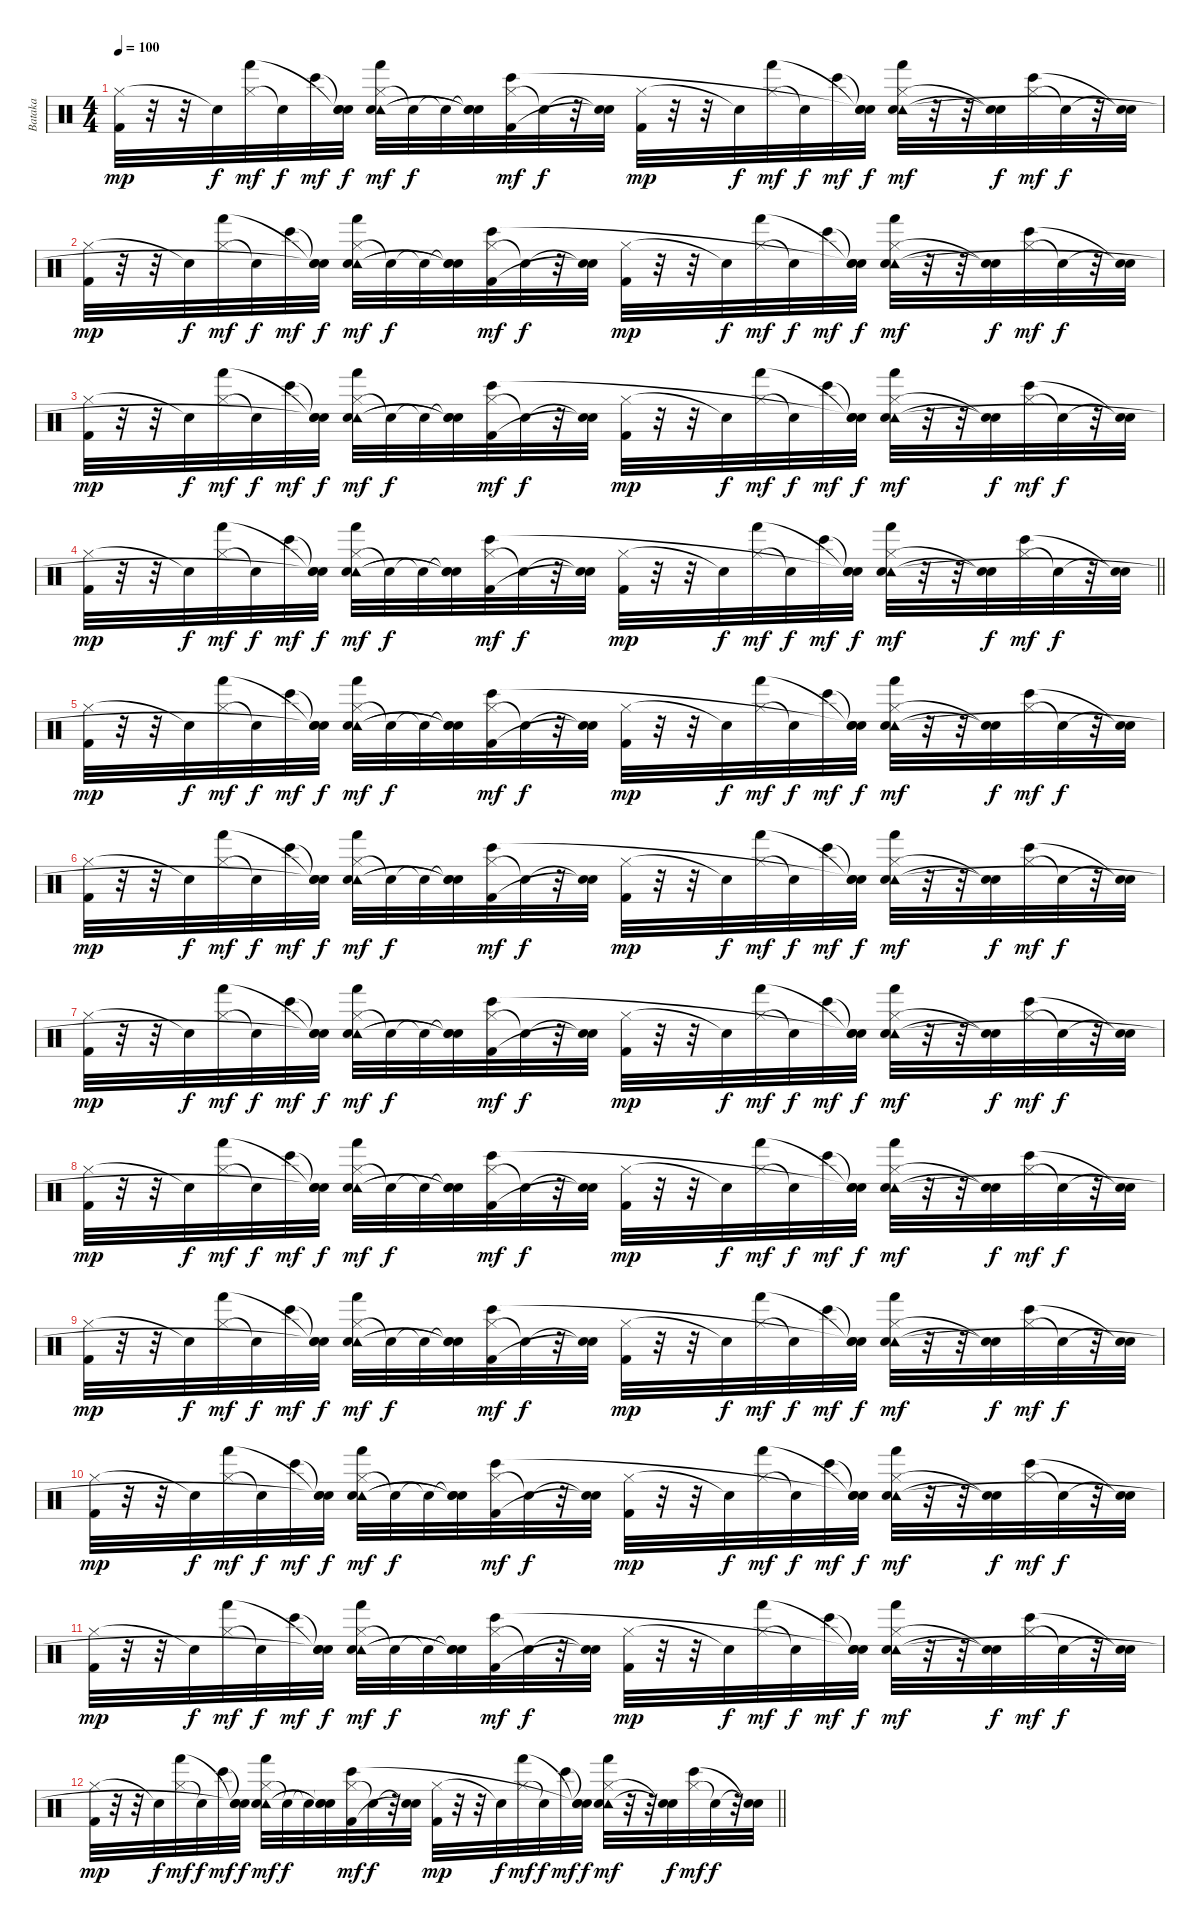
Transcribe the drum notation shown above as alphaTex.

\track ("Bataka" "Bataka") {instrument percussion}
\staff {score}
\articulation defaults
\ts (4 4)
\tempo 100
\clef neutral
\ks c
("Hi-Hat (closed)" "Kick (hit) 2").32{dy mp} r.32 r.32 "Snare (hit)"{t}.32{dy f} ("Hi-Hat (closed)" "Hand (hit)").32{dy mf} "Snare (hit)"{t}.32{dy f} "Bongo High (hit)".32{dy mf} ("Snare (hit)"{t} "Snare (hit)"{t} "Snare (hit)"{t}).32{dy f} ("Hi-Hat (closed)" "Tambourine (hit)" "Electric Snare (hit)" "Hand (hit)").32{dy mf} "Snare (hit)"{t}.32{dy f} "Snare (hit)"{t}.32 ("Snare (hit)"{t} "Snare (hit)"{t} "Snare (hit)"{t}).32 ("Hi-Hat (closed)" "Kick (hit) 2" "Bongo High (hit)").32{dy mf} "Snare (hit)"{t}.32{dy f} r.32 ("Snare (hit)"{t} "Snare (hit)"{t}).32 ("Hi-Hat (closed)" "Kick (hit) 2").32{dy mp} r.32 r.32 "Snare (hit)"{t}.32{dy f} ("Hi-Hat (closed)" "Hand (hit)").32{dy mf} "Snare (hit)"{t}.32{dy f} "Bongo High (hit)".32{dy mf} ("Snare (hit)"{t} "Snare (hit)"{t} "Snare (hit)"{t}).32{dy f} ("Hi-Hat (closed)" "Tambourine (hit)" "Electric Snare (hit)" "Hand (hit)").32{dy mf} r.32 r.32 ("Snare (hit)"{t} "Snare (hit)"{t}).32{dy f} ("Hi-Hat (closed)" "Bongo High (hit)").32{dy mf} "Snare (hit)"{t}.32{dy f} r.32 ("Snare (hit)"{t} "Snare (hit)"{t}).32 |
("Hi-Hat (closed)" "Kick (hit) 2").32{dy mp} r.32 r.32 "Snare (hit)"{t}.32{dy f} ("Hi-Hat (closed)" "Hand (hit)").32{dy mf} "Snare (hit)"{t}.32{dy f} "Bongo High (hit)".32{dy mf} ("Snare (hit)"{t} "Snare (hit)"{t} "Snare (hit)"{t}).32{dy f} ("Hi-Hat (closed)" "Tambourine (hit)" "Electric Snare (hit)" "Hand (hit)").32{dy mf} "Snare (hit)"{t}.32{dy f} "Snare (hit)"{t}.32 ("Snare (hit)"{t} "Snare (hit)"{t} "Snare (hit)"{t}).32 ("Hi-Hat (closed)" "Kick (hit) 2" "Bongo High (hit)").32{dy mf} "Snare (hit)"{t}.32{dy f} r.32 ("Snare (hit)"{t} "Snare (hit)"{t}).32 ("Hi-Hat (closed)" "Kick (hit) 2").32{dy mp} r.32 r.32 "Snare (hit)"{t}.32{dy f} ("Hi-Hat (closed)" "Hand (hit)").32{dy mf} "Snare (hit)"{t}.32{dy f} "Bongo High (hit)".32{dy mf} ("Snare (hit)"{t} "Snare (hit)"{t} "Snare (hit)"{t}).32{dy f} ("Hi-Hat (closed)" "Tambourine (hit)" "Electric Snare (hit)" "Hand (hit)").32{dy mf} r.32 r.32 ("Snare (hit)"{t} "Snare (hit)"{t}).32{dy f} ("Hi-Hat (closed)" "Bongo High (hit)").32{dy mf} "Snare (hit)"{t}.32{dy f} r.32 ("Snare (hit)"{t} "Snare (hit)"{t}).32 |
("Hi-Hat (closed)" "Kick (hit) 2").32{dy mp} r.32 r.32 "Snare (hit)"{t}.32{dy f} ("Hi-Hat (closed)" "Hand (hit)").32{dy mf} "Snare (hit)"{t}.32{dy f} "Bongo High (hit)".32{dy mf} ("Snare (hit)"{t} "Snare (hit)"{t} "Snare (hit)"{t}).32{dy f} ("Hi-Hat (closed)" "Tambourine (hit)" "Electric Snare (hit)" "Hand (hit)").32{dy mf} "Snare (hit)"{t}.32{dy f} "Snare (hit)"{t}.32 ("Snare (hit)"{t} "Snare (hit)"{t} "Snare (hit)"{t}).32 ("Hi-Hat (closed)" "Kick (hit) 2" "Bongo High (hit)").32{dy mf} "Snare (hit)"{t}.32{dy f} r.32 ("Snare (hit)"{t} "Snare (hit)"{t}).32 ("Hi-Hat (closed)" "Kick (hit) 2").32{dy mp} r.32 r.32 "Snare (hit)"{t}.32{dy f} ("Hi-Hat (closed)" "Hand (hit)").32{dy mf} "Snare (hit)"{t}.32{dy f} "Bongo High (hit)".32{dy mf} ("Snare (hit)"{t} "Snare (hit)"{t} "Snare (hit)"{t}).32{dy f} ("Hi-Hat (closed)" "Tambourine (hit)" "Electric Snare (hit)" "Hand (hit)").32{dy mf} r.32 r.32 ("Snare (hit)"{t} "Snare (hit)"{t}).32{dy f} ("Hi-Hat (closed)" "Bongo High (hit)").32{dy mf} "Snare (hit)"{t}.32{dy f} r.32 ("Snare (hit)"{t} "Snare (hit)"{t}).32 |
\barLineRight lightlight
("Hi-Hat (closed)" "Kick (hit) 2").32{dy mp} r.32 r.32 "Snare (hit)"{t}.32{dy f} ("Hi-Hat (closed)" "Hand (hit)").32{dy mf} "Snare (hit)"{t}.32{dy f} "Bongo High (hit)".32{dy mf} ("Snare (hit)"{t} "Snare (hit)"{t} "Snare (hit)"{t}).32{dy f} ("Hi-Hat (closed)" "Tambourine (hit)" "Electric Snare (hit)" "Hand (hit)").32{dy mf} "Snare (hit)"{t}.32{dy f} "Snare (hit)"{t}.32 ("Snare (hit)"{t} "Snare (hit)"{t} "Snare (hit)"{t}).32 ("Hi-Hat (closed)" "Kick (hit) 2" "Bongo High (hit)").32{dy mf} "Snare (hit)"{t}.32{dy f} r.32 ("Snare (hit)"{t} "Snare (hit)"{t}).32 ("Hi-Hat (closed)" "Kick (hit) 2").32{dy mp} r.32 r.32 "Snare (hit)"{t}.32{dy f} ("Hi-Hat (closed)" "Hand (hit)").32{dy mf} "Snare (hit)"{t}.32{dy f} "Bongo High (hit)".32{dy mf} ("Snare (hit)"{t} "Snare (hit)"{t} "Snare (hit)"{t}).32{dy f} ("Hi-Hat (closed)" "Tambourine (hit)" "Electric Snare (hit)" "Hand (hit)").32{dy mf} r.32 r.32 ("Snare (hit)"{t} "Snare (hit)"{t}).32{dy f} ("Hi-Hat (closed)" "Bongo High (hit)").32{dy mf} "Snare (hit)"{t}.32{dy f} r.32 ("Snare (hit)"{t} "Snare (hit)"{t}).32 |
("Hi-Hat (closed)" "Kick (hit) 2").32{dy mp} r.32 r.32 "Snare (hit)"{t}.32{dy f} ("Hi-Hat (closed)" "Hand (hit)").32{dy mf} "Snare (hit)"{t}.32{dy f} "Bongo High (hit)".32{dy mf} ("Snare (hit)"{t} "Snare (hit)"{t} "Snare (hit)"{t}).32{dy f} ("Hi-Hat (closed)" "Tambourine (hit)" "Electric Snare (hit)" "Hand (hit)").32{dy mf} "Snare (hit)"{t}.32{dy f} "Snare (hit)"{t}.32 ("Snare (hit)"{t} "Snare (hit)"{t} "Snare (hit)"{t}).32 ("Hi-Hat (closed)" "Kick (hit) 2" "Bongo High (hit)").32{dy mf} "Snare (hit)"{t}.32{dy f} r.32 ("Snare (hit)"{t} "Snare (hit)"{t}).32 ("Hi-Hat (closed)" "Kick (hit) 2").32{dy mp} r.32 r.32 "Snare (hit)"{t}.32{dy f} ("Hi-Hat (closed)" "Hand (hit)").32{dy mf} "Snare (hit)"{t}.32{dy f} "Bongo High (hit)".32{dy mf} ("Snare (hit)"{t} "Snare (hit)"{t} "Snare (hit)"{t}).32{dy f} ("Hi-Hat (closed)" "Tambourine (hit)" "Electric Snare (hit)" "Hand (hit)").32{dy mf} r.32 r.32 ("Snare (hit)"{t} "Snare (hit)"{t}).32{dy f} ("Hi-Hat (closed)" "Bongo High (hit)").32{dy mf} "Snare (hit)"{t}.32{dy f} r.32 ("Snare (hit)"{t} "Snare (hit)"{t}).32 |
("Hi-Hat (closed)" "Kick (hit) 2").32{dy mp} r.32 r.32 "Snare (hit)"{t}.32{dy f} ("Hi-Hat (closed)" "Hand (hit)").32{dy mf} "Snare (hit)"{t}.32{dy f} "Bongo High (hit)".32{dy mf} ("Snare (hit)"{t} "Snare (hit)"{t} "Snare (hit)"{t}).32{dy f} ("Hi-Hat (closed)" "Tambourine (hit)" "Electric Snare (hit)" "Hand (hit)").32{dy mf} "Snare (hit)"{t}.32{dy f} "Snare (hit)"{t}.32 ("Snare (hit)"{t} "Snare (hit)"{t} "Snare (hit)"{t}).32 ("Hi-Hat (closed)" "Kick (hit) 2" "Bongo High (hit)").32{dy mf} "Snare (hit)"{t}.32{dy f} r.32 ("Snare (hit)"{t} "Snare (hit)"{t}).32 ("Hi-Hat (closed)" "Kick (hit) 2").32{dy mp} r.32 r.32 "Snare (hit)"{t}.32{dy f} ("Hi-Hat (closed)" "Hand (hit)").32{dy mf} "Snare (hit)"{t}.32{dy f} "Bongo High (hit)".32{dy mf} ("Snare (hit)"{t} "Snare (hit)"{t} "Snare (hit)"{t}).32{dy f} ("Hi-Hat (closed)" "Tambourine (hit)" "Electric Snare (hit)" "Hand (hit)").32{dy mf} r.32 r.32 ("Snare (hit)"{t} "Snare (hit)"{t}).32{dy f} ("Hi-Hat (closed)" "Bongo High (hit)").32{dy mf} "Snare (hit)"{t}.32{dy f} r.32 ("Snare (hit)"{t} "Snare (hit)"{t}).32 |
("Hi-Hat (closed)" "Kick (hit) 2").32{dy mp} r.32 r.32 "Snare (hit)"{t}.32{dy f} ("Hi-Hat (closed)" "Hand (hit)").32{dy mf} "Snare (hit)"{t}.32{dy f} "Bongo High (hit)".32{dy mf} ("Snare (hit)"{t} "Snare (hit)"{t} "Snare (hit)"{t}).32{dy f} ("Hi-Hat (closed)" "Tambourine (hit)" "Electric Snare (hit)" "Hand (hit)").32{dy mf} "Snare (hit)"{t}.32{dy f} "Snare (hit)"{t}.32 ("Snare (hit)"{t} "Snare (hit)"{t} "Snare (hit)"{t}).32 ("Hi-Hat (closed)" "Kick (hit) 2" "Bongo High (hit)").32{dy mf} "Snare (hit)"{t}.32{dy f} r.32 ("Snare (hit)"{t} "Snare (hit)"{t}).32 ("Hi-Hat (closed)" "Kick (hit) 2").32{dy mp} r.32 r.32 "Snare (hit)"{t}.32{dy f} ("Hi-Hat (closed)" "Hand (hit)").32{dy mf} "Snare (hit)"{t}.32{dy f} "Bongo High (hit)".32{dy mf} ("Snare (hit)"{t} "Snare (hit)"{t} "Snare (hit)"{t}).32{dy f} ("Hi-Hat (closed)" "Tambourine (hit)" "Electric Snare (hit)" "Hand (hit)").32{dy mf} r.32 r.32 ("Snare (hit)"{t} "Snare (hit)"{t}).32{dy f} ("Hi-Hat (closed)" "Bongo High (hit)").32{dy mf} "Snare (hit)"{t}.32{dy f} r.32 ("Snare (hit)"{t} "Snare (hit)"{t}).32 |
("Hi-Hat (closed)" "Kick (hit) 2").32{dy mp} r.32 r.32 "Snare (hit)"{t}.32{dy f} ("Hi-Hat (closed)" "Hand (hit)").32{dy mf} "Snare (hit)"{t}.32{dy f} "Bongo High (hit)".32{dy mf} ("Snare (hit)"{t} "Snare (hit)"{t} "Snare (hit)"{t}).32{dy f} ("Hi-Hat (closed)" "Tambourine (hit)" "Electric Snare (hit)" "Hand (hit)").32{dy mf} "Snare (hit)"{t}.32{dy f} "Snare (hit)"{t}.32 ("Snare (hit)"{t} "Snare (hit)"{t} "Snare (hit)"{t}).32 ("Hi-Hat (closed)" "Kick (hit) 2" "Bongo High (hit)").32{dy mf} "Snare (hit)"{t}.32{dy f} r.32 ("Snare (hit)"{t} "Snare (hit)"{t}).32 ("Hi-Hat (closed)" "Kick (hit) 2").32{dy mp} r.32 r.32 "Snare (hit)"{t}.32{dy f} ("Hi-Hat (closed)" "Hand (hit)").32{dy mf} "Snare (hit)"{t}.32{dy f} "Bongo High (hit)".32{dy mf} ("Snare (hit)"{t} "Snare (hit)"{t} "Snare (hit)"{t}).32{dy f} ("Hi-Hat (closed)" "Tambourine (hit)" "Electric Snare (hit)" "Hand (hit)").32{dy mf} r.32 r.32 ("Snare (hit)"{t} "Snare (hit)"{t}).32{dy f} ("Hi-Hat (closed)" "Bongo High (hit)").32{dy mf} "Snare (hit)"{t}.32{dy f} r.32 ("Snare (hit)"{t} "Snare (hit)"{t}).32 |
("Hi-Hat (closed)" "Kick (hit) 2").32{dy mp} r.32 r.32 "Snare (hit)"{t}.32{dy f} ("Hi-Hat (closed)" "Hand (hit)").32{dy mf} "Snare (hit)"{t}.32{dy f} "Bongo High (hit)".32{dy mf} ("Snare (hit)"{t} "Snare (hit)"{t} "Snare (hit)"{t}).32{dy f} ("Hi-Hat (closed)" "Tambourine (hit)" "Electric Snare (hit)" "Hand (hit)").32{dy mf} "Snare (hit)"{t}.32{dy f} "Snare (hit)"{t}.32 ("Snare (hit)"{t} "Snare (hit)"{t} "Snare (hit)"{t}).32 ("Hi-Hat (closed)" "Kick (hit) 2" "Bongo High (hit)").32{dy mf} "Snare (hit)"{t}.32{dy f} r.32 ("Snare (hit)"{t} "Snare (hit)"{t}).32 ("Hi-Hat (closed)" "Kick (hit) 2").32{dy mp} r.32 r.32 "Snare (hit)"{t}.32{dy f} ("Hi-Hat (closed)" "Hand (hit)").32{dy mf} "Snare (hit)"{t}.32{dy f} "Bongo High (hit)".32{dy mf} ("Snare (hit)"{t} "Snare (hit)"{t} "Snare (hit)"{t}).32{dy f} ("Hi-Hat (closed)" "Tambourine (hit)" "Electric Snare (hit)" "Hand (hit)").32{dy mf} r.32 r.32 ("Snare (hit)"{t} "Snare (hit)"{t}).32{dy f} ("Hi-Hat (closed)" "Bongo High (hit)").32{dy mf} "Snare (hit)"{t}.32{dy f} r.32 ("Snare (hit)"{t} "Snare (hit)"{t}).32 |
("Hi-Hat (closed)" "Kick (hit) 2").32{dy mp} r.32 r.32 "Snare (hit)"{t}.32{dy f} ("Hi-Hat (closed)" "Hand (hit)").32{dy mf} "Snare (hit)"{t}.32{dy f} "Bongo High (hit)".32{dy mf} ("Snare (hit)"{t} "Snare (hit)"{t} "Snare (hit)"{t}).32{dy f} ("Hi-Hat (closed)" "Tambourine (hit)" "Electric Snare (hit)" "Hand (hit)").32{dy mf} "Snare (hit)"{t}.32{dy f} "Snare (hit)"{t}.32 ("Snare (hit)"{t} "Snare (hit)"{t} "Snare (hit)"{t}).32 ("Hi-Hat (closed)" "Kick (hit) 2" "Bongo High (hit)").32{dy mf} "Snare (hit)"{t}.32{dy f} r.32 ("Snare (hit)"{t} "Snare (hit)"{t}).32 ("Hi-Hat (closed)" "Kick (hit) 2").32{dy mp} r.32 r.32 "Snare (hit)"{t}.32{dy f} ("Hi-Hat (closed)" "Hand (hit)").32{dy mf} "Snare (hit)"{t}.32{dy f} "Bongo High (hit)".32{dy mf} ("Snare (hit)"{t} "Snare (hit)"{t} "Snare (hit)"{t}).32{dy f} ("Hi-Hat (closed)" "Tambourine (hit)" "Electric Snare (hit)" "Hand (hit)").32{dy mf} r.32 r.32 ("Snare (hit)"{t} "Snare (hit)"{t}).32{dy f} ("Hi-Hat (closed)" "Bongo High (hit)").32{dy mf} "Snare (hit)"{t}.32{dy f} r.32 ("Snare (hit)"{t} "Snare (hit)"{t}).32 |
("Hi-Hat (closed)" "Kick (hit) 2").32{dy mp} r.32 r.32 "Snare (hit)"{t}.32{dy f} ("Hi-Hat (closed)" "Hand (hit)").32{dy mf} "Snare (hit)"{t}.32{dy f} "Bongo High (hit)".32{dy mf} ("Snare (hit)"{t} "Snare (hit)"{t} "Snare (hit)"{t}).32{dy f} ("Hi-Hat (closed)" "Tambourine (hit)" "Electric Snare (hit)" "Hand (hit)").32{dy mf} "Snare (hit)"{t}.32{dy f} "Snare (hit)"{t}.32 ("Snare (hit)"{t} "Snare (hit)"{t} "Snare (hit)"{t}).32 ("Hi-Hat (closed)" "Kick (hit) 2" "Bongo High (hit)").32{dy mf} "Snare (hit)"{t}.32{dy f} r.32 ("Snare (hit)"{t} "Snare (hit)"{t}).32 ("Hi-Hat (closed)" "Kick (hit) 2").32{dy mp} r.32 r.32 "Snare (hit)"{t}.32{dy f} ("Hi-Hat (closed)" "Hand (hit)").32{dy mf} "Snare (hit)"{t}.32{dy f} "Bongo High (hit)".32{dy mf} ("Snare (hit)"{t} "Snare (hit)"{t} "Snare (hit)"{t}).32{dy f} ("Hi-Hat (closed)" "Tambourine (hit)" "Electric Snare (hit)" "Hand (hit)").32{dy mf} r.32 r.32 ("Snare (hit)"{t} "Snare (hit)"{t}).32{dy f} ("Hi-Hat (closed)" "Bongo High (hit)").32{dy mf} "Snare (hit)"{t}.32{dy f} r.32 ("Snare (hit)"{t} "Snare (hit)"{t}).32 |
\barLineRight lightlight
("Hi-Hat (closed)" "Kick (hit) 2").32{dy mp} r.32 r.32 "Snare (hit)"{t}.32{dy f} ("Hi-Hat (closed)" "Hand (hit)").32{dy mf} "Snare (hit)"{t}.32{dy f} "Bongo High (hit)".32{dy mf} ("Snare (hit)"{t} "Snare (hit)"{t} "Snare (hit)"{t}).32{dy f} ("Hi-Hat (closed)" "Tambourine (hit)" "Electric Snare (hit)" "Hand (hit)").32{dy mf} "Snare (hit)"{t}.32{dy f} "Snare (hit)"{t}.32 ("Snare (hit)"{t} "Snare (hit)"{t} "Snare (hit)"{t}).32 ("Hi-Hat (closed)" "Kick (hit) 2" "Bongo High (hit)").32{dy mf} "Snare (hit)"{t}.32{dy f} r.32 ("Snare (hit)"{t} "Snare (hit)"{t}).32 ("Hi-Hat (closed)" "Kick (hit) 2").32{dy mp} r.32 r.32 "Snare (hit)"{t}.32{dy f} ("Hi-Hat (closed)" "Hand (hit)").32{dy mf} "Snare (hit)"{t}.32{dy f} "Bongo High (hit)".32{dy mf} ("Snare (hit)"{t} "Snare (hit)"{t} "Snare (hit)"{t}).32{dy f} ("Hi-Hat (closed)" "Tambourine (hit)" "Electric Snare (hit)" "Hand (hit)").32{dy mf} r.32 r.32 ("Snare (hit)"{t} "Snare (hit)"{t}).32{dy f} ("Hi-Hat (closed)" "Bongo High (hit)").32{dy mf} "Snare (hit)"{t}.32{dy f} r.32 ("Snare (hit)"{t} "Snare (hit)"{t}).32
